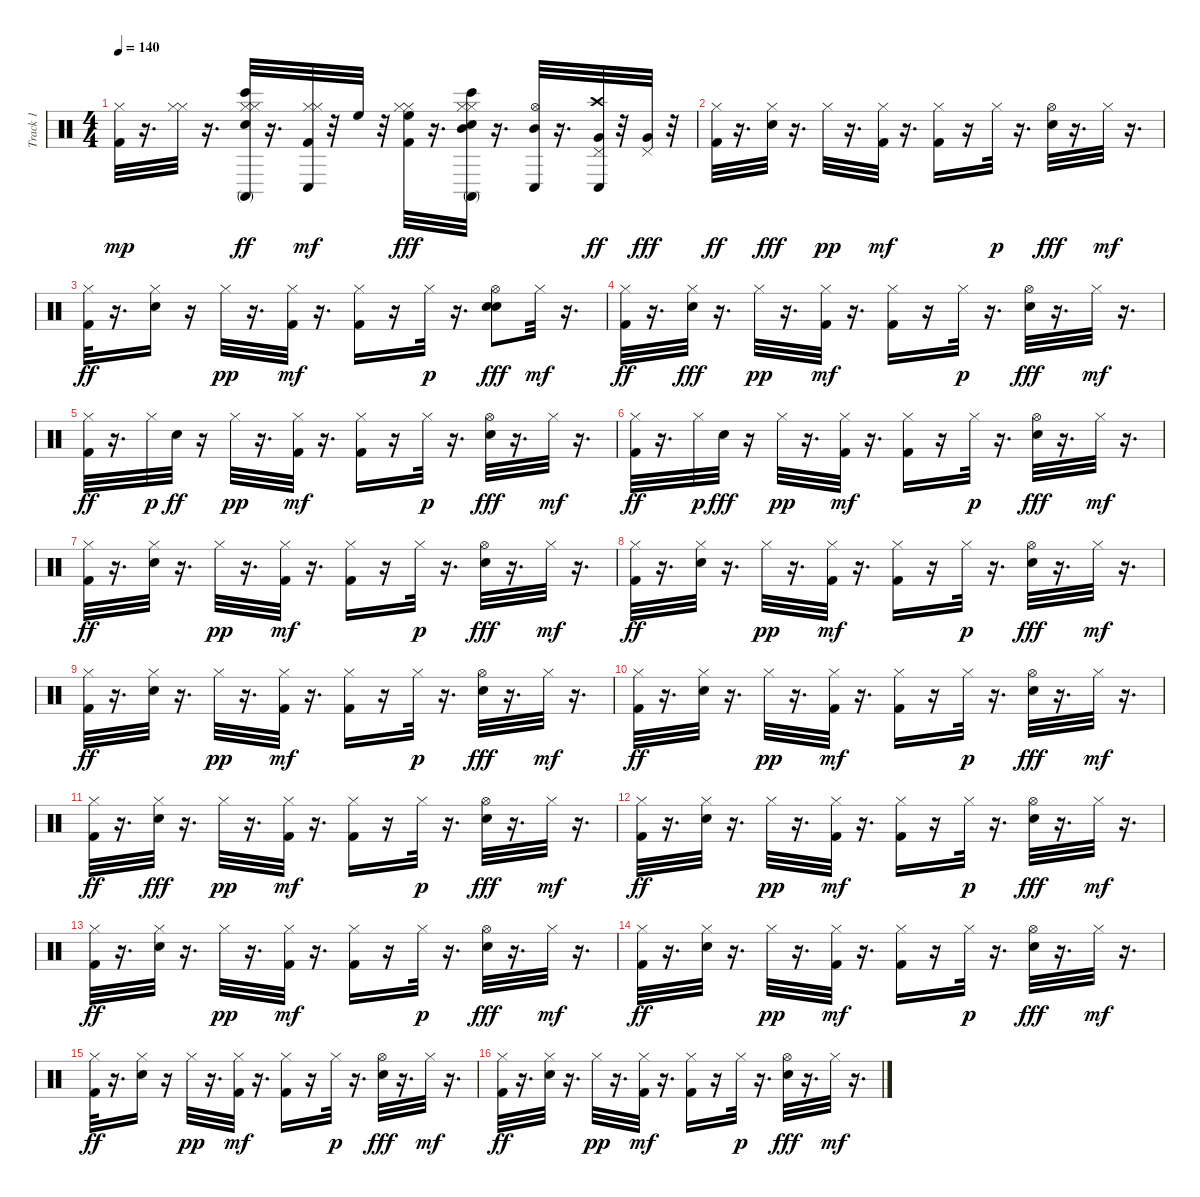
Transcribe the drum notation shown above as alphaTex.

\track ("Track 1" "Track 1") {instrument percussion}
\staff {score}
\articulation defaults
\ts (4 4)
\tempo 140
\clef neutral
\ks c
("Kick (hit) 2" "Hi-Hat (closed)").32{dy mp} r.16{d} ("Hi-Hat (closed)" "Hi-Hat (closed)").32 r.16{d} ("Electric Snare (hit)" "Hi-Hat (closed)" "Hi-Hat (closed)" "Conga high (mute)" "Bongo High (hit)").32{dy ff} r.16{d} ("Kick (hit) 2" "Hi-Hat (closed)" "Hi-Hat (closed)" "Conga low (hit)").32{dy mf} r.32 "High Floor Tom (hit)".32 r.32 ("Kick (hit) 2" "Hi-Hat (closed)" "Hi-Hat (closed)" "High Floor Tom (hit)").32{dy fff} r.16{d} ("Electric Snare (hit)" "Hi-Hat (closed)" "Hi-Hat (closed)" "Conga high (mute)" "Bongo High (hit)" "Mid Tom (hit)").32 r.16{d} ("Hi-Hat (open)" "Conga low (hit)" "Mid Tom (hit)").32 r.16{d} ("Pedal Hi-Hat (hit)" "Conga low (hit)" "Very Low Tom (hit)" "Crash high (hit)").32{dy ff} r.32 ("Pedal Hi-Hat (hit)" "Very Low Tom (hit)").32{dy fff} r.32 |
("Kick (hit) 2" "Hi-Hat (closed)").32{dy ff} r.16{d} ("Hi-Hat (closed)" "Electric Snare (hit)").32{dy fff} r.16{d} "Hi-Hat (closed)".32{dy pp} r.16{d} ("Kick (hit) 2" "Hi-Hat (closed)").32{dy mf} r.16{d} ("Kick (hit) 2" "Hi-Hat (closed)").16 r.16 "Hi-Hat (closed)".32{dy p} r.16{d} ("Electric Snare (hit)" "Hi-Hat (open)").32{dy fff} r.16{d} "Hi-Hat (closed)".32{dy mf} r.16{d} |
("Kick (hit) 2" "Hi-Hat (closed)").32{dy ff} r.16{d} ("Hi-Hat (closed)" "Electric Snare (hit)").16 r.16 "Hi-Hat (closed)".32{dy pp} r.16{d} ("Kick (hit) 2" "Hi-Hat (closed)").32{dy mf} r.16{d} ("Kick (hit) 2" "Hi-Hat (closed)").16 r.16 "Hi-Hat (closed)".32{dy p} r.16{d} ("Electric Snare (hit)" "Electric Snare (hit)" "Hi-Hat (open)").8{dy fff} "Hi-Hat (closed)".32{dy mf} r.16{d} |
("Kick (hit) 2" "Hi-Hat (closed)").32{dy ff} r.16{d} ("Hi-Hat (closed)" "Electric Snare (hit)").32{dy fff} r.16{d} "Hi-Hat (closed)".32{dy pp} r.16{d} ("Kick (hit) 2" "Hi-Hat (closed)").32{dy mf} r.16{d} ("Kick (hit) 2" "Hi-Hat (closed)").16 r.16 "Hi-Hat (closed)".32{dy p} r.16{d} ("Electric Snare (hit)" "Hi-Hat (open)").32{dy fff} r.16{d} "Hi-Hat (closed)".32{dy mf} r.16{d} |
("Kick (hit) 2" "Hi-Hat (closed)").32{dy ff} r.16{d} "Hi-Hat (closed)".32{dy p} "Electric Snare (hit)".32{dy ff} r.16 "Hi-Hat (closed)".32{dy pp} r.16{d} ("Kick (hit) 2" "Hi-Hat (closed)").32{dy mf} r.16{d} ("Kick (hit) 2" "Hi-Hat (closed)").16 r.16 "Hi-Hat (closed)".32{dy p} r.16{d} ("Electric Snare (hit)" "Hi-Hat (open)").32{dy fff} r.16{d} "Hi-Hat (closed)".32{dy mf} r.16{d} |
("Kick (hit) 2" "Hi-Hat (closed)").32{dy ff} r.16{d} "Hi-Hat (closed)".32{dy p} "Electric Snare (hit)".32{dy fff} r.16 "Hi-Hat (closed)".32{dy pp} r.16{d} ("Kick (hit) 2" "Hi-Hat (closed)").32{dy mf} r.16{d} ("Kick (hit) 2" "Hi-Hat (closed)").16 r.16 "Hi-Hat (closed)".32{dy p} r.16{d} ("Electric Snare (hit)" "Hi-Hat (open)").32{dy fff} r.16{d} "Hi-Hat (closed)".32{dy mf} r.16{d} |
("Kick (hit) 2" "Hi-Hat (closed)").32{dy ff} r.16{d} ("Hi-Hat (closed)" "Electric Snare (hit)").32 r.16{d} "Hi-Hat (closed)".32{dy pp} r.16{d} ("Kick (hit) 2" "Hi-Hat (closed)").32{dy mf} r.16{d} ("Kick (hit) 2" "Hi-Hat (closed)").16 r.16 "Hi-Hat (closed)".32{dy p} r.16{d} ("Electric Snare (hit)" "Hi-Hat (open)").32{dy fff} r.16{d} "Hi-Hat (closed)".32{dy mf} r.16{d} |
("Kick (hit) 2" "Hi-Hat (closed)").32{dy ff} r.16{d} ("Hi-Hat (closed)" "Electric Snare (hit)").32 r.16{d} "Hi-Hat (closed)".32{dy pp} r.16{d} ("Kick (hit) 2" "Hi-Hat (closed)").32{dy mf} r.16{d} ("Kick (hit) 2" "Hi-Hat (closed)").16 r.16 "Hi-Hat (closed)".32{dy p} r.16{d} ("Electric Snare (hit)" "Hi-Hat (open)").32{dy fff} r.16{d} "Hi-Hat (closed)".32{dy mf} r.16{d} |
("Kick (hit) 2" "Hi-Hat (closed)").32{dy ff} r.16{d} ("Hi-Hat (closed)" "Electric Snare (hit)").32 r.16{d} "Hi-Hat (closed)".32{dy pp} r.16{d} ("Kick (hit) 2" "Hi-Hat (closed)").32{dy mf} r.16{d} ("Kick (hit) 2" "Hi-Hat (closed)").16 r.16 "Hi-Hat (closed)".32{dy p} r.16{d} ("Electric Snare (hit)" "Hi-Hat (open)").32{dy fff} r.16{d} "Hi-Hat (closed)".32{dy mf} r.16{d} |
("Kick (hit) 2" "Hi-Hat (closed)").32{dy ff} r.16{d} ("Hi-Hat (closed)" "Electric Snare (hit)").32 r.16{d} "Hi-Hat (closed)".32{dy pp} r.16{d} ("Kick (hit) 2" "Hi-Hat (closed)").32{dy mf} r.16{d} ("Kick (hit) 2" "Hi-Hat (closed)").16 r.16 "Hi-Hat (closed)".32{dy p} r.16{d} ("Electric Snare (hit)" "Hi-Hat (open)").32{dy fff} r.16{d} "Hi-Hat (closed)".32{dy mf} r.16{d} |
("Kick (hit) 2" "Hi-Hat (closed)").32{dy ff} r.16{d} ("Hi-Hat (closed)" "Electric Snare (hit)").32{dy fff} r.16{d} "Hi-Hat (closed)".32{dy pp} r.16{d} ("Kick (hit) 2" "Hi-Hat (closed)").32{dy mf} r.16{d} ("Kick (hit) 2" "Hi-Hat (closed)").16 r.16 "Hi-Hat (closed)".32{dy p} r.16{d} ("Electric Snare (hit)" "Hi-Hat (open)").32{dy fff} r.16{d} "Hi-Hat (closed)".32{dy mf} r.16{d} |
("Kick (hit) 2" "Hi-Hat (closed)").32{dy ff} r.16{d} ("Hi-Hat (closed)" "Electric Snare (hit)").32 r.16{d} "Hi-Hat (closed)".32{dy pp} r.16{d} ("Kick (hit) 2" "Hi-Hat (closed)").32{dy mf} r.16{d} ("Kick (hit) 2" "Hi-Hat (closed)").16 r.16 "Hi-Hat (closed)".32{dy p} r.16{d} ("Electric Snare (hit)" "Hi-Hat (open)").32{dy fff} r.16{d} "Hi-Hat (closed)".32{dy mf} r.16{d} |
("Kick (hit) 2" "Hi-Hat (closed)").32{dy ff} r.16{d} ("Hi-Hat (closed)" "Electric Snare (hit)").32 r.16{d} "Hi-Hat (closed)".32{dy pp} r.16{d} ("Kick (hit) 2" "Hi-Hat (closed)").32{dy mf} r.16{d} ("Kick (hit) 2" "Hi-Hat (closed)").16 r.16 "Hi-Hat (closed)".32{dy p} r.16{d} ("Electric Snare (hit)" "Hi-Hat (open)").32{dy fff} r.16{d} "Hi-Hat (closed)".32{dy mf} r.16{d} |
("Kick (hit) 2" "Hi-Hat (closed)").32{dy ff} r.16{d} ("Hi-Hat (closed)" "Electric Snare (hit)").32 r.16{d} "Hi-Hat (closed)".32{dy pp} r.16{d} ("Kick (hit) 2" "Hi-Hat (closed)").32{dy mf} r.16{d} ("Kick (hit) 2" "Hi-Hat (closed)").16 r.16 "Hi-Hat (closed)".32{dy p} r.16{d} ("Electric Snare (hit)" "Hi-Hat (open)").32{dy fff} r.16{d} "Hi-Hat (closed)".32{dy mf} r.16{d} |
("Kick (hit) 2" "Hi-Hat (closed)").32{dy ff} r.16{d} ("Hi-Hat (closed)" "Electric Snare (hit)").16 r.16 "Hi-Hat (closed)".32{dy pp} r.16{d} ("Kick (hit) 2" "Hi-Hat (closed)").32{dy mf} r.16{d} ("Kick (hit) 2" "Hi-Hat (closed)").16 r.16 "Hi-Hat (closed)".32{dy p} r.16{d} ("Electric Snare (hit)" "Hi-Hat (open)").32{dy fff} r.16{d} "Hi-Hat (closed)".32{dy mf} r.16{d} |
("Kick (hit) 2" "Hi-Hat (closed)").32{dy ff} r.16{d} ("Hi-Hat (closed)" "Electric Snare (hit)").32 r.16{d} "Hi-Hat (closed)".32{dy pp} r.16{d} ("Kick (hit) 2" "Hi-Hat (closed)").32{dy mf} r.16{d} ("Kick (hit) 2" "Hi-Hat (closed)").16 r.16 "Hi-Hat (closed)".32{dy p} r.16{d} ("Electric Snare (hit)" "Hi-Hat (open)").32{dy fff} r.16{d} "Hi-Hat (closed)".32{dy mf} r.16{d}
